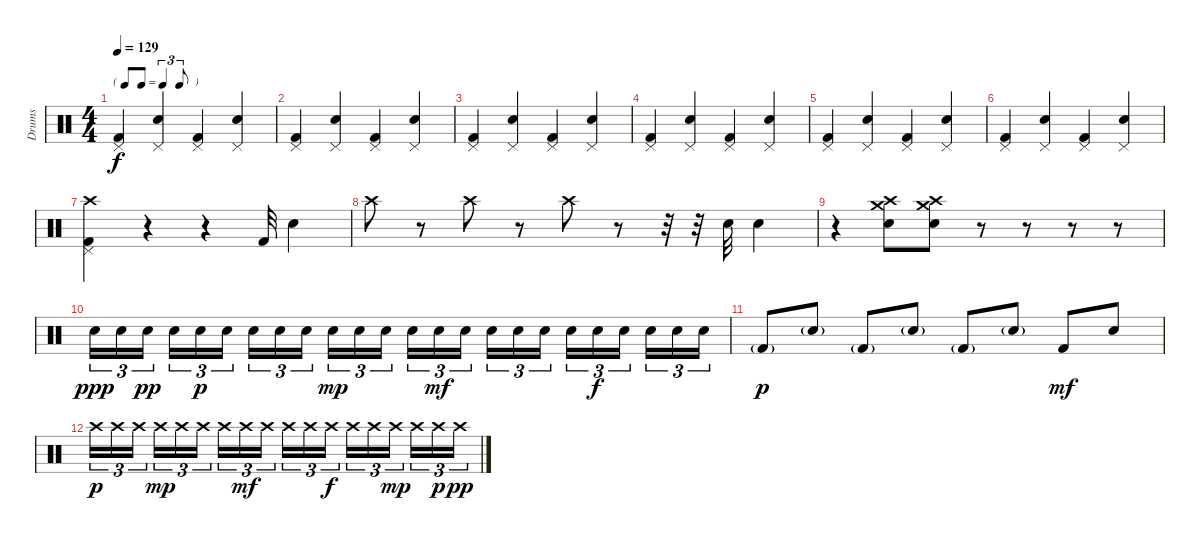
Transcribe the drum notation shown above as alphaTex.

\track ("Drums" "Drums") {instrument percussion}
\staff {score}
\articulation defaults
\ts (4 4)
\tf triplet8th
\tempo 129
\clef neutral
\ks c
("Pedal Hi-Hat (hit)" "Kick (hit) 2").4{dy f} ("Pedal Hi-Hat (hit)" "Electric Snare (hit)").4 ("Pedal Hi-Hat (hit)" "Kick (hit) 2").4 ("Pedal Hi-Hat (hit)" "Electric Snare (hit)").4 |
("Pedal Hi-Hat (hit)" "Kick (hit) 2").4 ("Pedal Hi-Hat (hit)" "Electric Snare (hit)").4 ("Pedal Hi-Hat (hit)" "Kick (hit) 2").4 ("Pedal Hi-Hat (hit)" "Electric Snare (hit)").4 |
("Pedal Hi-Hat (hit)" "Kick (hit) 2").4 ("Pedal Hi-Hat (hit)" "Electric Snare (hit)").4 ("Pedal Hi-Hat (hit)" "Kick (hit) 2").4 ("Pedal Hi-Hat (hit)" "Electric Snare (hit)").4 |
("Pedal Hi-Hat (hit)" "Kick (hit) 2").4 ("Pedal Hi-Hat (hit)" "Electric Snare (hit)").4 ("Pedal Hi-Hat (hit)" "Kick (hit) 2").4 ("Pedal Hi-Hat (hit)" "Electric Snare (hit)").4 |
("Pedal Hi-Hat (hit)" "Kick (hit) 2").4 ("Pedal Hi-Hat (hit)" "Electric Snare (hit)").4 ("Pedal Hi-Hat (hit)" "Kick (hit) 2").4 ("Pedal Hi-Hat (hit)" "Electric Snare (hit)").4 |
("Pedal Hi-Hat (hit)" "Kick (hit) 2").4 ("Pedal Hi-Hat (hit)" "Electric Snare (hit)").4 ("Pedal Hi-Hat (hit)" "Kick (hit) 2").4 ("Pedal Hi-Hat (hit)" "Electric Snare (hit)").4 |
("Crash high (hit)" "Pedal Hi-Hat (hit)" "Kick (hit) 2").4 r.4 r.4 "Kick (hit) 2".32 "Electric Snare (hit)".4 |
"Crash high (hit)".8 r.8 "Crash high (hit)".8 r.8 "Crash high (hit)".8 r.8 r.32 r.32 "Electric Snare (hit)".32 "Electric Snare (hit)".4 |
r.4 ("Crash medium (hit)" "Crash high (hit)" "Electric Snare (hit)").8 ("Crash medium (hit)" "Crash high (hit)" "Electric Snare (hit)").8 r.8 r.8 r.8 r.8 |
"Electric Snare (hit)".16{tu (3 2) dy ppp} "Electric Snare (hit)".16{tu (3 2)} "Electric Snare (hit)".16{tu (3 2) dy pp beam splitsecondary} "Electric Snare (hit)".16{tu (3 2)} "Electric Snare (hit)".16{tu (3 2) dy p} "Electric Snare (hit)".16{tu (3 2)} "Electric Snare (hit)".16{tu (3 2)} "Electric Snare (hit)".16{tu (3 2)} "Electric Snare (hit)".16{tu (3 2) beam splitsecondary} "Electric Snare (hit)".16{tu (3 2) dy mp} "Electric Snare (hit)".16{tu (3 2)} "Electric Snare (hit)".16{tu (3 2)} "Electric Snare (hit)".16{tu (3 2)} "Electric Snare (hit)".16{tu (3 2) dy mf} "Electric Snare (hit)".16{tu (3 2) beam splitsecondary} "Electric Snare (hit)".16{tu (3 2)} "Electric Snare (hit)".16{tu (3 2)} "Electric Snare (hit)".16{tu (3 2)} "Electric Snare (hit)".16{tu (3 2)} "Electric Snare (hit)".16{tu (3 2) dy f} "Electric Snare (hit)".16{tu (3 2) beam splitsecondary} "Electric Snare (hit)".16{tu (3 2)} "Electric Snare (hit)".16{tu (3 2)} "Electric Snare (hit)".16{tu (3 2)} |
"Kick (hit) 2"{g}.8{dy p} "Electric Snare (hit)"{g}.8 "Kick (hit) 2"{g}.8 "Electric Snare (hit)"{g}.8 "Kick (hit) 2"{g}.8 "Electric Snare (hit)"{g}.8 "Kick (hit) 2".8{dy mf} "Electric Snare (hit)".8 |
"Crash high (hit)".16{tu (3 2) dy p} "Crash high (hit)".16{tu (3 2)} "Crash high (hit)".16{tu (3 2) beam splitsecondary} "Crash high (hit)".16{tu (3 2) dy mp} "Crash high (hit)".16{tu (3 2)} "Crash high (hit)".16{tu (3 2)} "Crash high (hit)".16{tu (3 2)} "Crash high (hit)".16{tu (3 2) dy mf} "Crash high (hit)".16{tu (3 2) beam splitsecondary} "Crash high (hit)".16{tu (3 2)} "Crash high (hit)".16{tu (3 2)} "Crash high (hit)".16{tu (3 2) dy f} "Crash high (hit)".16{tu (3 2)} "Crash high (hit)".16{tu (3 2)} "Crash high (hit)".16{tu (3 2) dy mp beam splitsecondary} "Crash high (hit)".16{tu (3 2)} "Crash high (hit)".16{tu (3 2) dy p} "Crash high (hit)".16{tu (3 2) dy pp}
